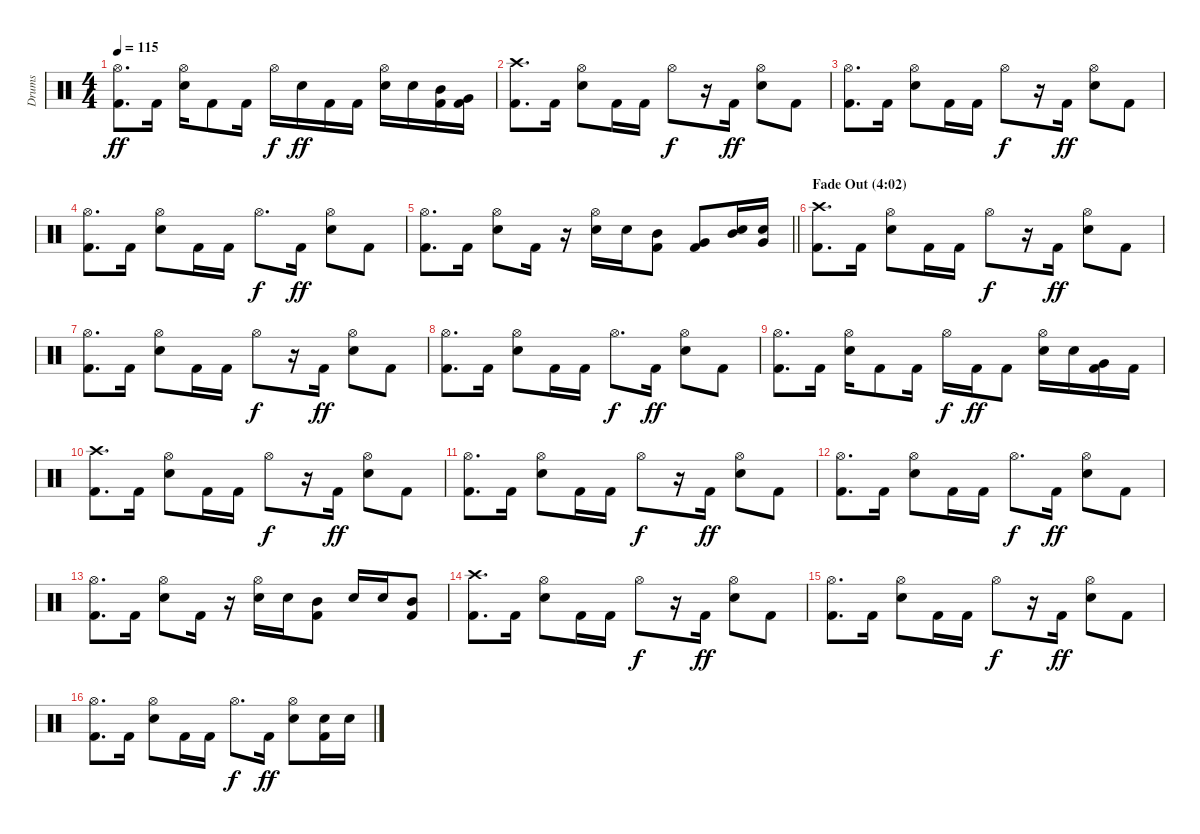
\track ("Drums" "Drums") {instrument percussion}
\staff {score}
\articulation defaults
\ts (4 4)
\tempo 115
\clef neutral
\ks c
("Hi-Hat (open)" "Kick (hit) 2").8{d dy ff} "Kick (hit) 2".16 ("Hi-Hat (open)" "Snare (hit) 2").16 "Kick (hit) 2".8 "Kick (hit) 2".16 "Hi-Hat (open)".16{dy f} "Snare (hit) 2".16{dy ff} "Kick (hit) 2".16 "Kick (hit) 2".16 ("Hi-Hat (open)" "Snare (hit) 2").16 "Snare (hit) 2".16 ("Mid Tom (hit)" "Kick (hit) 2").16 ("Very Low Tom (hit)" "Kick (hit) 2").16 |
("Crash high (hit)" "Kick (hit) 2").8{d} "Kick (hit) 2".16 ("Hi-Hat (open)" "Snare (hit) 2").8 "Kick (hit) 2".16 "Kick (hit) 2".16 "Hi-Hat (open)".8{dy f} r.16 "Kick (hit) 2".16{dy ff} ("Hi-Hat (open)" "Snare (hit) 2").8 "Kick (hit) 2".8 |
("Hi-Hat (open)" "Kick (hit) 2").8{d} "Kick (hit) 2".16 ("Hi-Hat (open)" "Snare (hit) 2").8 "Kick (hit) 2".16 "Kick (hit) 2".16 "Hi-Hat (open)".8{dy f} r.16 "Kick (hit) 2".16{dy ff} ("Hi-Hat (open)" "Snare (hit) 2").8 "Kick (hit) 2".8 |
("Hi-Hat (open)" "Kick (hit) 2").8{d} "Kick (hit) 2".16 ("Hi-Hat (open)" "Snare (hit) 2").8 "Kick (hit) 2".16 "Kick (hit) 2".16 "Hi-Hat (open)".8{d dy f} "Kick (hit) 2".16{dy ff} ("Hi-Hat (open)" "Snare (hit) 2").8 "Kick (hit) 2".8 |
\barLineRight lightlight
("Hi-Hat (open)" "Kick (hit) 2").8{d} "Kick (hit) 2".16 ("Hi-Hat (open)" "Snare (hit) 2").8 "Kick (hit) 2".16 r.16 ("Hi-Hat (open)" "Snare (hit) 2").16 "Snare (hit) 2".16 ("Mid Tom (hit)" "Kick (hit) 2").8 ("Very Low Tom (hit)" "Kick (hit) 2").8 ("Snare (hit) 2" "Mid Tom (hit)").16 ("Snare (hit) 2" "Very Low Tom (hit)").16 |
\section ("" "Fade Out (4:02)")
("Crash high (hit)" "Kick (hit) 2").8{d volume 11} "Kick (hit) 2".16 ("Hi-Hat (open)" "Snare (hit) 2").8 "Kick (hit) 2".16 "Kick (hit) 2".16 "Hi-Hat (open)".8{dy f} r.16 "Kick (hit) 2".16{dy ff} ("Hi-Hat (open)" "Snare (hit) 2").8 "Kick (hit) 2".8 |
("Hi-Hat (open)" "Kick (hit) 2").8{d} "Kick (hit) 2".16 ("Hi-Hat (open)" "Snare (hit) 2").8 "Kick (hit) 2".16 "Kick (hit) 2".16 "Hi-Hat (open)".8{dy f} r.16 "Kick (hit) 2".16{dy ff} ("Hi-Hat (open)" "Snare (hit) 2").8 "Kick (hit) 2".8 |
("Hi-Hat (open)" "Kick (hit) 2").8{d} "Kick (hit) 2".16 ("Hi-Hat (open)" "Snare (hit) 2").8 "Kick (hit) 2".16 "Kick (hit) 2".16 "Hi-Hat (open)".8{d dy f} "Kick (hit) 2".16{dy ff} ("Hi-Hat (open)" "Snare (hit) 2").8 "Kick (hit) 2".8 |
("Hi-Hat (open)" "Kick (hit) 2").8{d} "Kick (hit) 2".16 ("Hi-Hat (open)" "Snare (hit) 2").16 "Kick (hit) 2".8 "Kick (hit) 2".16 "Hi-Hat (open)".16{dy f} "Kick (hit) 2".16{dy ff} "Kick (hit) 2".8 ("Hi-Hat (open)" "Snare (hit) 2").16 "Snare (hit) 2".16 ("Very Low Tom (hit)" "Kick (hit) 2").16 "Kick (hit) 2".16 |
("Crash high (hit)" "Kick (hit) 2").8{d volume 9} "Kick (hit) 2".16 ("Hi-Hat (open)" "Snare (hit) 2").8 "Kick (hit) 2".16 "Kick (hit) 2".16 "Hi-Hat (open)".8{dy f} r.16 "Kick (hit) 2".16{dy ff} ("Hi-Hat (open)" "Snare (hit) 2").8 "Kick (hit) 2".8 |
("Hi-Hat (open)" "Kick (hit) 2").8{d} "Kick (hit) 2".16 ("Hi-Hat (open)" "Snare (hit) 2").8 "Kick (hit) 2".16 "Kick (hit) 2".16 "Hi-Hat (open)".8{dy f} r.16 "Kick (hit) 2".16{dy ff} ("Hi-Hat (open)" "Snare (hit) 2").8 "Kick (hit) 2".8 |
("Hi-Hat (open)" "Kick (hit) 2").8{d} "Kick (hit) 2".16 ("Hi-Hat (open)" "Snare (hit) 2").8 "Kick (hit) 2".16 "Kick (hit) 2".16 "Hi-Hat (open)".8{d dy f} "Kick (hit) 2".16{dy ff} ("Hi-Hat (open)" "Snare (hit) 2").8 "Kick (hit) 2".8 |
("Hi-Hat (open)" "Kick (hit) 2").8{d} "Kick (hit) 2".16 ("Hi-Hat (open)" "Snare (hit) 2").8 "Kick (hit) 2".16 r.16 ("Hi-Hat (open)" "Snare (hit) 2").16 "Snare (hit) 2".16 ("Mid Tom (hit)" "Kick (hit) 2").8 "Snare (hit) 2".16 "Snare (hit) 2".16 ("Mid Tom (hit)" "Kick (hit) 2").8 |
("Crash high (hit)" "Kick (hit) 2").8{d volume 6} "Kick (hit) 2".16 ("Hi-Hat (open)" "Snare (hit) 2").8 "Kick (hit) 2".16 "Kick (hit) 2".16 "Hi-Hat (open)".8{dy f} r.16 "Kick (hit) 2".16{dy ff} ("Hi-Hat (open)" "Snare (hit) 2").8 "Kick (hit) 2".8 |
("Hi-Hat (open)" "Kick (hit) 2").8{d} "Kick (hit) 2".16 ("Hi-Hat (open)" "Snare (hit) 2").8 "Kick (hit) 2".16 "Kick (hit) 2".16 "Hi-Hat (open)".8{dy f} r.16 "Kick (hit) 2".16{dy ff} ("Hi-Hat (open)" "Snare (hit) 2").8 "Kick (hit) 2".8 |
("Hi-Hat (open)" "Kick (hit) 2").8{d} "Kick (hit) 2".16 ("Hi-Hat (open)" "Snare (hit) 2").8 "Kick (hit) 2".16 "Kick (hit) 2".16 "Hi-Hat (open)".8{d dy f} "Kick (hit) 2".16{dy ff} ("Hi-Hat (open)" "Snare (hit) 2").8 ("Snare (hit) 2" "Kick (hit) 2").16 "Snare (hit) 2".16
